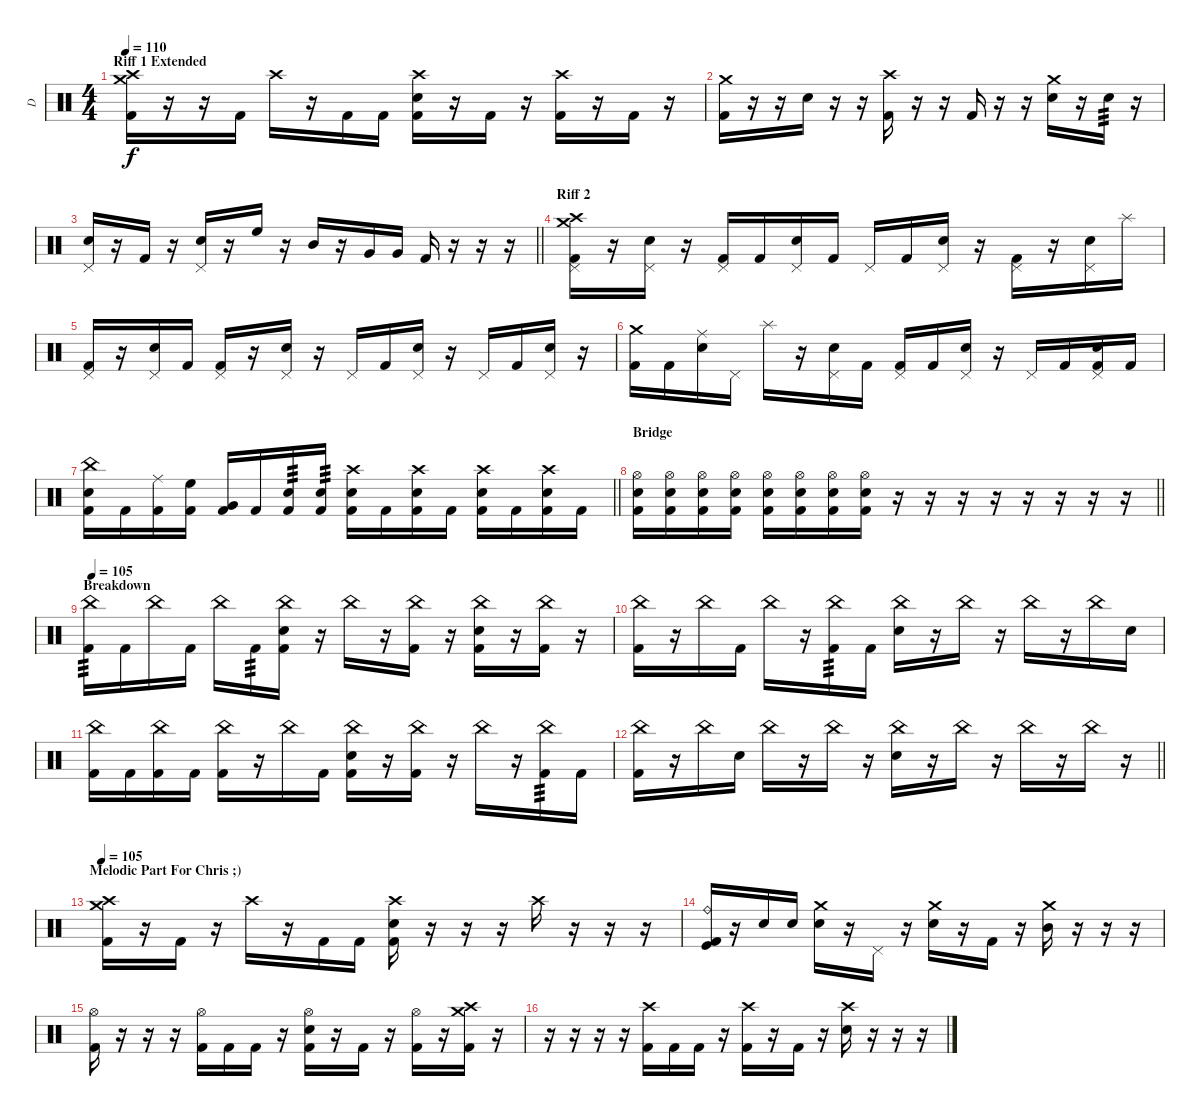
\track ("D" "D") {instrument percussion}
\staff {score}
\articulation defaults
\ts (4 4)
\section ("" "Riff 1 Extended")
\tempo 110
\clef neutral
\ks c
("Crash medium (hit)" "Crash high (hit)" "Kick (hit) 2").16{dy f} r.16 r.16 "Kick (hit) 2".16 "Crash high (hit)".16 r.16 "Kick (hit) 2".16 "Kick (hit) 2".16 ("Crash high (hit)" "Electric Snare (hit)" "Kick (hit) 2").16 r.16 "Kick (hit) 2".16 r.16 ("Crash high (hit)" "Kick (hit) 2").16 r.16 "Kick (hit) 2".16 r.16 |
("Crash medium (hit)" "Kick (hit) 2").16 r.16 r.16 "Electric Snare (hit)".16 r.16 r.16 ("Crash high (hit)" "Kick (hit) 2").16 r.16 r.16 "Kick (hit) 2".16 r.16 r.16 ("Crash medium (hit)" "Electric Snare (hit)").16 r.16 "Electric Snare (hit)".16{tp 3} r.16 |
\barLineRight lightlight
("Electric Snare (hit)" "Pedal Hi-Hat (hit)").16 r.16 "Kick (hit) 2".16 r.16 ("Pedal Hi-Hat (hit)" "Electric Snare (hit)").16 r.16 "High Floor Tom (hit)".16 r.16 "Mid Tom (hit)".16 r.16 "Very Low Tom (hit)".16 "Very Low Tom (hit)".16 "Kick (hit) 2".16 r.16 r.16 r.16 |
\section ("" "Riff 2")
("Crash medium (hit)" "Kick (hit) 2" "Crash high (hit)" "Pedal Hi-Hat (hit)").16 r.16 ("Electric Snare (hit)" "Pedal Hi-Hat (hit)").16 r.16 ("Kick (hit) 2" "Pedal Hi-Hat (hit)").16 "Kick (hit) 2".16 ("Electric Snare (hit)" "Pedal Hi-Hat (hit)").16 "Kick (hit) 2".16 "Pedal Hi-Hat (hit)".16 "Kick (hit) 2".16 ("Electric Snare (hit)" "Pedal Hi-Hat (hit)").16 r.16 ("Kick (hit) 2" "Pedal Hi-Hat (hit)").16 r.16 ("Electric Snare (hit)" "Pedal Hi-Hat (hit)").16 "Splash (hit)".16 |
("Pedal Hi-Hat (hit)" "Kick (hit) 2").16 r.16 ("Electric Snare (hit)" "Pedal Hi-Hat (hit)").16 "Kick (hit) 2".16 ("Kick (hit) 2" "Pedal Hi-Hat (hit)").16 r.16 ("Electric Snare (hit)" "Pedal Hi-Hat (hit)").16 r.16 "Pedal Hi-Hat (hit)".16 "Kick (hit) 2".16 ("Electric Snare (hit)" "Pedal Hi-Hat (hit)").16 r.16 "Pedal Hi-Hat (hit)".16 "Kick (hit) 2".16 ("Electric Snare (hit)" "Pedal Hi-Hat (hit)").16 r.16 |
("Crash medium (hit)" "Kick (hit) 2").16 "Kick (hit) 2".16 ("Ride (middle)" "Electric Snare (hit)").16 "Pedal Hi-Hat (hit)".16 "Splash (hit)".16 r.16 ("Pedal Hi-Hat (hit)" "Electric Snare (hit)").16 "Kick (hit) 2".16 ("Kick (hit) 2" "Pedal Hi-Hat (hit)").16 "Kick (hit) 2".16 ("Pedal Hi-Hat (hit)" "Electric Snare (hit)").16 r.16 "Pedal Hi-Hat (hit)".16 "Kick (hit) 2".16 ("Electric Snare (hit)" "Pedal Hi-Hat (hit)" "Kick (hit) 2").16 "Kick (hit) 2".16 |
\barLineRight lightlight
("China (hit)" "Electric Snare (hit)" "Kick (hit) 2").16 "Kick (hit) 2".16 ("Ride (middle)" "Kick (hit) 2").16 ("High Floor Tom (hit)" "Kick (hit) 2").16 ("Very Low Tom (hit)" "Kick (hit) 2").16 "Kick (hit) 2".16 ("Electric Snare (hit)" "Kick (hit) 2").16{tp 3} ("Electric Snare (hit)" "Kick (hit) 2").16{tp 3} ("Crash high (hit)" "Electric Snare (hit)" "Kick (hit) 2").16 "Kick (hit) 2".16 ("Crash high (hit)" "Electric Snare (hit)" "Kick (hit) 2").16 "Kick (hit) 2".16 ("Crash high (hit)" "Electric Snare (hit)" "Kick (hit) 2").16 "Kick (hit) 2".16 ("Crash high (hit)" "Electric Snare (hit)" "Kick (hit) 2").16 "Kick (hit) 2".16 |
\section ("" "Bridge")
\barLineRight lightlight
("Hi-Hat (open)" "Kick (hit) 2" "Electric Snare (hit)").16 ("Hi-Hat (open)" "Kick (hit) 2" "Electric Snare (hit)").16 ("Hi-Hat (open)" "Kick (hit) 2" "Electric Snare (hit)").16 ("Hi-Hat (open)" "Kick (hit) 2" "Electric Snare (hit)").16 ("Hi-Hat (open)" "Kick (hit) 2" "Electric Snare (hit)").16 ("Hi-Hat (open)" "Kick (hit) 2" "Electric Snare (hit)").16 ("Hi-Hat (open)" "Kick (hit) 2" "Electric Snare (hit)").16 ("Hi-Hat (open)" "Kick (hit) 2" "Electric Snare (hit)").16 r.16 r.16 r.16 r.16 r.16 r.16 r.16 r.16 |
\section ("" "Breakdown")
\tempo 95
\tempo 105
("China (hit)" "Kick (hit) 2").16{tp 3} "Kick (hit) 2".16 "China (hit)".16 "Kick (hit) 2".16 "China (hit)".16 "Kick (hit) 2".16{tp 3} ("China (hit)" "Electric Snare (hit)" "Kick (hit) 2").16 r.16 "China (hit)".16 r.16 ("China (hit)" "Kick (hit) 2").16 r.16 ("China (hit)" "Electric Snare (hit)" "Kick (hit) 2").16 r.16 ("China (hit)" "Kick (hit) 2").16 r.16 |
("China (hit)" "Kick (hit) 2").16 r.16 "China (hit)".16 "Kick (hit) 2".16 "China (hit)".16 r.16 ("China (hit)" "Kick (hit) 2").16{tp 3} "Kick (hit) 2".16 ("China (hit)" "Electric Snare (hit)").16 r.16 "China (hit)".16 r.16 "China (hit)".16 r.16 "China (hit)".16 "Electric Snare (hit)".16 |
("China (hit)" "Kick (hit) 2").16 "Kick (hit) 2".16 ("China (hit)" "Kick (hit) 2").16 "Kick (hit) 2".16 ("China (hit)" "Kick (hit) 2").16 r.16 "China (hit)".16 "Kick (hit) 2".16 ("China (hit)" "Electric Snare (hit)" "Kick (hit) 2").16 r.16 ("China (hit)" "Kick (hit) 2").16 r.16 "China (hit)".16 r.16 ("China (hit)" "Kick (hit) 2").16{tp 3} "Kick (hit) 2".16 |
\barLineRight lightlight
("China (hit)" "Kick (hit) 2").16 r.16 "China (hit)".16 "Electric Snare (hit)".16 "China (hit)".16 r.16 "China (hit)".16 r.16 ("China (hit)" "Electric Snare (hit)").16 r.16 "China (hit)".16 r.16 "China (hit)".16 r.16 "China (hit)".16 r.16 |
\section ("" "Melodic Part For Chris ;)")
\tempo 105
("Crash medium (hit)" "Crash high (hit)" "Kick (hit) 2").16 r.16 "Kick (hit) 2".16 r.16 "Crash high (hit)".16 r.16 "Kick (hit) 2".16 "Kick (hit) 2".16 ("Crash high (hit)" "Electric Snare (hit)" "Kick (hit) 2").16 r.16 r.16 r.16 "Crash high (hit)".16 r.16 r.16 r.16 |
("Ride (bell)" "Kick (hit)" "Kick (hit) 2").16 r.16 "Electric Snare (hit)".16 "Electric Snare (hit)".16 ("Crash medium (hit)" "Electric Snare (hit)").16 r.16 "Pedal Hi-Hat (hit)".16 r.16 ("Crash medium (hit)" "Electric Snare (hit)").16 r.16 "Kick (hit) 2".16 r.16 ("Crash medium (hit)" "Mid Tom (hit)").16 r.16 r.16 r.16 |
("Hi-Hat (open)" "Kick (hit) 2").16 r.16 r.16 r.16 ("Hi-Hat (open)" "Kick (hit) 2").16 "Kick (hit) 2".16 "Kick (hit) 2".16 r.16 ("Hi-Hat (open)" "Electric Snare (hit)" "Kick (hit) 2").16 r.16 "Kick (hit) 2".16 r.16 ("Hi-Hat (open)" "Kick (hit) 2").16 r.16 ("Crash medium (hit)" "Crash high (hit)" "Kick (hit) 2").16 r.16 |
r.16 r.16 r.16 r.16 ("Crash high (hit)" "Kick (hit) 2").16 "Kick (hit) 2".16 "Kick (hit) 2".16 r.16 ("Crash high (hit)" "Kick (hit) 2").16 r.16 "Kick (hit) 2".16 r.16 ("Crash high (hit)" "Electric Snare (hit)").16 r.16 r.16 r.16
